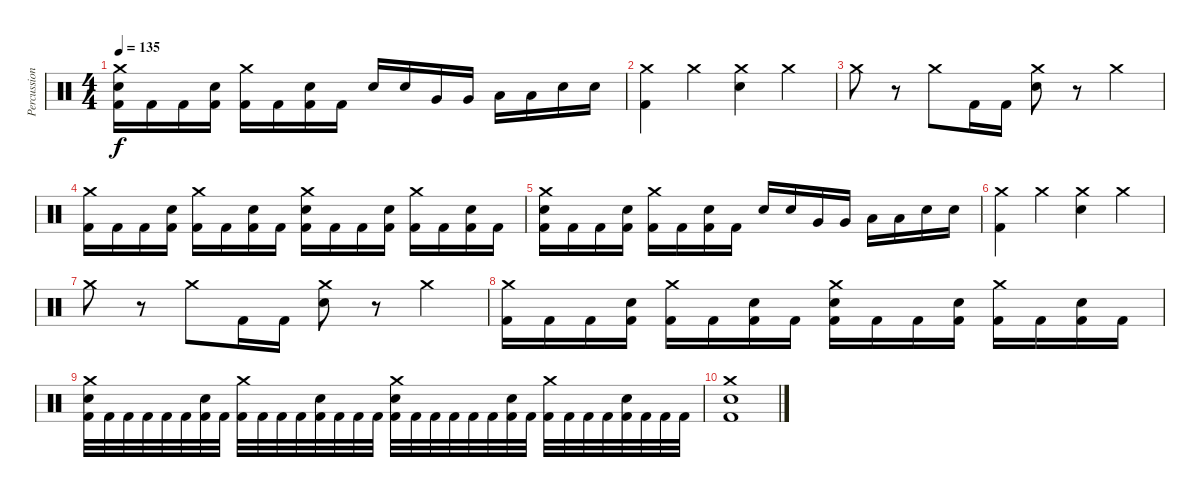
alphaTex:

\track ("Percussions" "Percussion") {instrument percussion}
\staff {score}
\articulation defaults
\ts (4 4)
\tempo 135
\clef neutral
\ks c
("Crash medium (hit)" "Electric Snare (hit)" "Kick (hit) 2").16{dy f} "Kick (hit) 2".16 "Kick (hit) 2".16 ("Electric Snare (hit)" "Kick (hit) 2").16 ("Crash medium (hit)" "Kick (hit) 2").16 "Kick (hit) 2".16 ("Electric Snare (hit)" "Kick (hit) 2").16 "Kick (hit) 2".16 "Electric Snare (hit)".16 "Electric Snare (hit)".16 "Very Low Tom (hit)".16 "Very Low Tom (hit)".16 "Low Floor Tom (hit)".16 "Low Floor Tom (hit)".16 "Electric Snare (hit)".16 "Electric Snare (hit)".16 |
("Crash medium (hit)" "Kick (hit) 2").4 "Crash medium (hit)".4 ("Crash medium (hit)" "Electric Snare (hit)").4 "Crash medium (hit)".4 |
"Crash medium (hit)".8 r.8 "Crash medium (hit)".8 "Kick (hit) 2".16 "Kick (hit) 2".16 ("Crash medium (hit)" "Electric Snare (hit)").8 r.8 "Crash medium (hit)".4 |
("Crash medium (hit)" "Kick (hit) 2").16 "Kick (hit) 2".16 "Kick (hit) 2".16 ("Electric Snare (hit)" "Kick (hit) 2").16 ("Crash medium (hit)" "Kick (hit) 2").16 "Kick (hit) 2".16 ("Electric Snare (hit)" "Kick (hit) 2").16 "Kick (hit) 2".16 ("Crash medium (hit)" "Electric Snare (hit)" "Kick (hit) 2").16 "Kick (hit) 2".16 "Kick (hit) 2".16 ("Electric Snare (hit)" "Kick (hit) 2").16 ("Crash medium (hit)" "Kick (hit) 2").16 "Kick (hit) 2".16 ("Electric Snare (hit)" "Kick (hit) 2").16 "Kick (hit) 2".16 |
("Crash medium (hit)" "Electric Snare (hit)" "Kick (hit) 2").16 "Kick (hit) 2".16 "Kick (hit) 2".16 ("Electric Snare (hit)" "Kick (hit) 2").16 ("Crash medium (hit)" "Kick (hit) 2").16 "Kick (hit) 2".16 ("Electric Snare (hit)" "Kick (hit) 2").16 "Kick (hit) 2".16 "Electric Snare (hit)".16 "Electric Snare (hit)".16 "Very Low Tom (hit)".16 "Very Low Tom (hit)".16 "Low Floor Tom (hit)".16 "Low Floor Tom (hit)".16 "Electric Snare (hit)".16 "Electric Snare (hit)".16 |
("Crash medium (hit)" "Kick (hit) 2").4 "Crash medium (hit)".4 ("Crash medium (hit)" "Electric Snare (hit)").4 "Crash medium (hit)".4 |
"Crash medium (hit)".8 r.8 "Crash medium (hit)".8 "Kick (hit) 2".16 "Kick (hit) 2".16 ("Crash medium (hit)" "Electric Snare (hit)").8 r.8 "Crash medium (hit)".4 |
("Crash medium (hit)" "Kick (hit) 2").16 "Kick (hit) 2".16 "Kick (hit) 2".16 ("Electric Snare (hit)" "Kick (hit) 2").16 ("Crash medium (hit)" "Kick (hit) 2").16 "Kick (hit) 2".16 ("Electric Snare (hit)" "Kick (hit) 2").16 "Kick (hit) 2".16 ("Crash medium (hit)" "Electric Snare (hit)" "Kick (hit) 2").16 "Kick (hit) 2".16 "Kick (hit) 2".16 ("Electric Snare (hit)" "Kick (hit) 2").16 ("Crash medium (hit)" "Kick (hit) 2").16 "Kick (hit) 2".16 ("Electric Snare (hit)" "Kick (hit) 2").16 "Kick (hit) 2".16 |
("Crash medium (hit)" "Electric Snare (hit)" "Kick (hit) 2").32 "Kick (hit) 2".32 "Kick (hit) 2".32 "Kick (hit) 2".32 "Kick (hit) 2".32 "Kick (hit) 2".32 ("Electric Snare (hit)" "Kick (hit) 2").32 "Kick (hit) 2".32 ("Crash medium (hit)" "Kick (hit) 2").32 "Kick (hit) 2".32 "Kick (hit) 2".32 "Kick (hit) 2".32 ("Electric Snare (hit)" "Kick (hit) 2").32 "Kick (hit) 2".32 "Kick (hit) 2".32 "Kick (hit) 2".32 ("Crash medium (hit)" "Electric Snare (hit)" "Kick (hit) 2").32 "Kick (hit) 2".32 "Kick (hit) 2".32 "Kick (hit) 2".32 "Kick (hit) 2".32 "Kick (hit) 2".32 ("Electric Snare (hit)" "Kick (hit) 2").32 "Kick (hit) 2".32 ("Crash medium (hit)" "Kick (hit) 2").32 "Kick (hit) 2".32 "Kick (hit) 2".32 "Kick (hit) 2".32 ("Electric Snare (hit)" "Kick (hit) 2").32 "Kick (hit) 2".32 "Kick (hit) 2".32 "Kick (hit) 2".32 |
("Crash medium (hit)" "Electric Snare (hit)" "Kick (hit) 2").1
